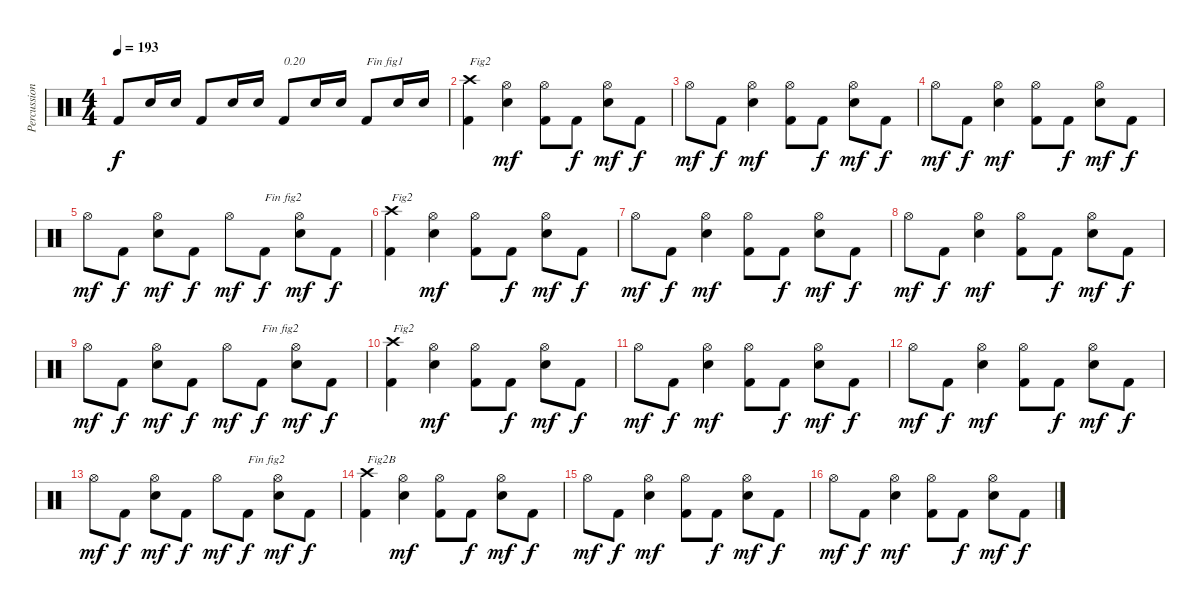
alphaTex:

\track ("Percussions" "Percussion") {instrument percussion}
\staff {score}
\articulation defaults
\ts (4 4)
\tempo 193
\clef neutral
\ks c "Kick (hit) 2".8{dy f} "Electric Snare (hit)".16 "Electric Snare (hit)".16 "Kick (hit) 2".8 "Electric Snare (hit)".16 "Electric Snare (hit)".16 "Kick (hit) 2".8{txt "0.20"} "Electric Snare (hit)".16 "Electric Snare (hit)".16 "Kick (hit) 2".8{txt "Fin fig1"} "Electric Snare (hit)".16 "Electric Snare (hit)".16
|
("Kick (hit) 2" "Crash high (hit)").4{txt "Fig2"} ("Electric Snare (hit)" "Hi-Hat (open)").4{dy mf} ("Kick (hit) 2" "Hi-Hat (open)").8 "Kick (hit) 2".8{dy f} ("Electric Snare (hit)" "Hi-Hat (open)").8{dy mf} "Kick (hit) 2".8{dy f} |
"Hi-Hat (open)".8{dy mf} "Kick (hit) 2".8{dy f} ("Electric Snare (hit)" "Hi-Hat (open)").4{dy mf} ("Kick (hit) 2" "Hi-Hat (open)").8 "Kick (hit) 2".8{dy f} ("Electric Snare (hit)" "Hi-Hat (open)").8{dy mf} "Kick (hit) 2".8{dy f} |
"Hi-Hat (open)".8{dy mf} "Kick (hit) 2".8{dy f} ("Electric Snare (hit)" "Hi-Hat (open)").4{dy mf} ("Kick (hit) 2" "Hi-Hat (open)").8 "Kick (hit) 2".8{dy f} ("Electric Snare (hit)" "Hi-Hat (open)").8{dy mf} "Kick (hit) 2".8{dy f} |
"Hi-Hat (open)".8{dy mf} "Kick (hit) 2".8{dy f} ("Electric Snare (hit)" "Hi-Hat (open)").8{dy mf} "Kick (hit) 2".8{dy f} "Hi-Hat (open)".8{dy mf} "Kick (hit) 2".8{txt "Fin fig2" dy f} ("Electric Snare (hit)" "Hi-Hat (open)").8{dy mf} "Kick (hit) 2".8{dy f} |
("Kick (hit) 2" "Crash high (hit)").4{txt "Fig2"} ("Electric Snare (hit)" "Hi-Hat (open)").4{dy mf} ("Kick (hit) 2" "Hi-Hat (open)").8 "Kick (hit) 2".8{dy f} ("Electric Snare (hit)" "Hi-Hat (open)").8{dy mf} "Kick (hit) 2".8{dy f} |
"Hi-Hat (open)".8{dy mf} "Kick (hit) 2".8{dy f} ("Electric Snare (hit)" "Hi-Hat (open)").4{dy mf} ("Kick (hit) 2" "Hi-Hat (open)").8 "Kick (hit) 2".8{dy f} ("Electric Snare (hit)" "Hi-Hat (open)").8{dy mf} "Kick (hit) 2".8{dy f} |
"Hi-Hat (open)".8{dy mf} "Kick (hit) 2".8{dy f} ("Electric Snare (hit)" "Hi-Hat (open)").4{dy mf} ("Kick (hit) 2" "Hi-Hat (open)").8 "Kick (hit) 2".8{dy f} ("Electric Snare (hit)" "Hi-Hat (open)").8{dy mf} "Kick (hit) 2".8{dy f} |
"Hi-Hat (open)".8{dy mf} "Kick (hit) 2".8{dy f} ("Electric Snare (hit)" "Hi-Hat (open)").8{dy mf} "Kick (hit) 2".8{dy f} "Hi-Hat (open)".8{dy mf} "Kick (hit) 2".8{txt "Fin fig2" dy f} ("Electric Snare (hit)" "Hi-Hat (open)").8{dy mf} "Kick (hit) 2".8{dy f} |
("Kick (hit) 2" "Crash high (hit)").4{txt "Fig2"} ("Electric Snare (hit)" "Hi-Hat (open)").4{dy mf} ("Kick (hit) 2" "Hi-Hat (open)").8 "Kick (hit) 2".8{dy f} ("Electric Snare (hit)" "Hi-Hat (open)").8{dy mf} "Kick (hit) 2".8{dy f} |
"Hi-Hat (open)".8{dy mf} "Kick (hit) 2".8{dy f} ("Electric Snare (hit)" "Hi-Hat (open)").4{dy mf} ("Kick (hit) 2" "Hi-Hat (open)").8 "Kick (hit) 2".8{dy f} ("Electric Snare (hit)" "Hi-Hat (open)").8{dy mf} "Kick (hit) 2".8{dy f} |
"Hi-Hat (open)".8{dy mf} "Kick (hit) 2".8{dy f} ("Electric Snare (hit)" "Hi-Hat (open)").4{dy mf} ("Kick (hit) 2" "Hi-Hat (open)").8 "Kick (hit) 2".8{dy f} ("Electric Snare (hit)" "Hi-Hat (open)").8{dy mf} "Kick (hit) 2".8{dy f} |
"Hi-Hat (open)".8{dy mf} "Kick (hit) 2".8{dy f} ("Electric Snare (hit)" "Hi-Hat (open)").8{dy mf} "Kick (hit) 2".8{dy f} "Hi-Hat (open)".8{dy mf} "Kick (hit) 2".8{txt "Fin fig2" dy f} ("Electric Snare (hit)" "Hi-Hat (open)").8{dy mf} "Kick (hit) 2".8{dy f} |
("Kick (hit) 2" "Crash high (hit)").4{txt "Fig2B"} ("Electric Snare (hit)" "Hi-Hat (open)").4{dy mf} ("Kick (hit) 2" "Hi-Hat (open)").8 "Kick (hit) 2".8{dy f} ("Electric Snare (hit)" "Hi-Hat (open)").8{dy mf} "Kick (hit) 2".8{dy f} |
"Hi-Hat (open)".8{dy mf} "Kick (hit) 2".8{dy f} ("Electric Snare (hit)" "Hi-Hat (open)").4{dy mf} ("Kick (hit) 2" "Hi-Hat (open)").8 "Kick (hit) 2".8{dy f} ("Electric Snare (hit)" "Hi-Hat (open)").8{dy mf} "Kick (hit) 2".8{dy f} |
"Hi-Hat (open)".8{dy mf} "Kick (hit) 2".8{dy f} ("Electric Snare (hit)" "Hi-Hat (open)").4{dy mf} ("Kick (hit) 2" "Hi-Hat (open)").8 "Kick (hit) 2".8{dy f} ("Electric Snare (hit)" "Hi-Hat (open)").8{dy mf} "Kick (hit) 2".8{dy f}
